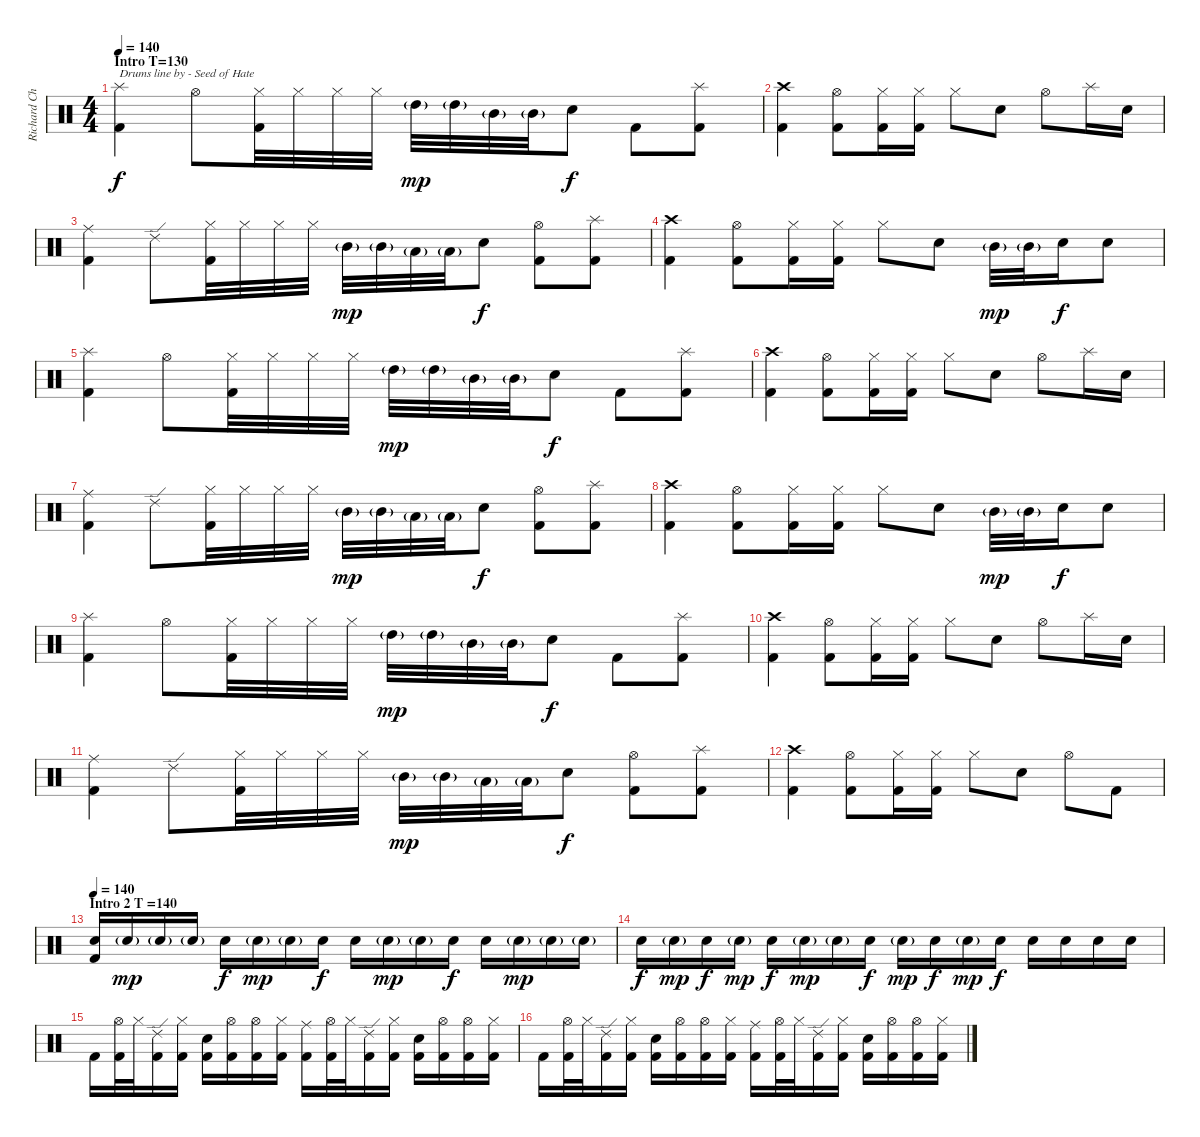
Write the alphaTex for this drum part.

\track ("Richard Christy" "Richard Ch") {instrument percussion}
\staff {score}
\articulation defaults
\ts (4 4)
\section ("" "Intro T=130")
\tempo 140
\tempo 130
\tempo 140
\clef neutral
\ks c
("Splash (hit)" "Kick (hit) 2").4{txt "Drums line by - Seed of Hate" dy f} "Hi-Hat (open)".8 ("Hi-Hat (closed)" "Kick (hit) 2").32 "Hi-Hat (closed)".32 "Hi-Hat (closed)".32 "Hi-Hat (closed)".32 "High Tom (hit)"{g}.32{dy mp} "High Tom (hit)"{g}.32 "Mid Tom (hit)"{g}.32 "Mid Tom (hit)"{g}.32 "Electric Snare (hit)".8{dy f} "Kick (hit) 2".8 ("Splash (hit)" "Kick (hit) 2").8 |
("Crash high (hit)" "Kick (hit) 2").4 ("Hi-Hat (open)" "Kick (hit) 2").8 ("Hi-Hat (closed)" "Kick (hit) 2").16 ("Hi-Hat (closed)" "Kick (hit) 2").16 "Hi-Hat (closed)".8 "Electric Snare (hit)".8 "Hi-Hat (open)".8 "Splash (hit)".16 "Electric Snare (hit)".16 |
("Ride (middle)" "Kick (hit) 2").4 "Ride (edge) 2".8 ("Hi-Hat (closed)" "Kick (hit) 2").32 "Hi-Hat (closed)".32 "Hi-Hat (closed)".32 "Hi-Hat (closed)".32 "Mid Tom (hit)"{g}.32{dy mp} "Mid Tom (hit)"{g}.32 "Low Tom (hit)"{g}.32 "Low Tom (hit)"{g}.32 "Electric Snare (hit)".8{dy f} ("Hi-Hat (open)" "Kick (hit) 2").8 ("Splash (hit)" "Kick (hit) 2").8 |
("Crash high (hit)" "Kick (hit) 2").4 ("Hi-Hat (open)" "Kick (hit) 2").8 ("Hi-Hat (closed)" "Kick (hit) 2").16 ("Hi-Hat (closed)" "Kick (hit) 2").16 "Hi-Hat (closed)".8 "Electric Snare (hit)".8 "Mid Tom (hit)"{g}.32{dy mp} "Mid Tom (hit)"{g}.32 "Electric Snare (hit)".16{dy f} "Electric Snare (hit)".8 |
("Splash (hit)" "Kick (hit) 2").4 "Hi-Hat (open)".8 ("Hi-Hat (closed)" "Kick (hit) 2").32 "Hi-Hat (closed)".32 "Hi-Hat (closed)".32 "Hi-Hat (closed)".32 "High Tom (hit)"{g}.32{dy mp} "High Tom (hit)"{g}.32 "Mid Tom (hit)"{g}.32 "Mid Tom (hit)"{g}.32 "Electric Snare (hit)".8{dy f} "Kick (hit) 2".8 ("Splash (hit)" "Kick (hit) 2").8 |
("Crash high (hit)" "Kick (hit) 2").4 ("Hi-Hat (open)" "Kick (hit) 2").8 ("Hi-Hat (closed)" "Kick (hit) 2").16 ("Hi-Hat (closed)" "Kick (hit) 2").16 "Hi-Hat (closed)".8 "Electric Snare (hit)".8 "Hi-Hat (open)".8 "Splash (hit)".16 "Electric Snare (hit)".16 |
("Ride (middle)" "Kick (hit) 2").4 "Ride (edge) 2".8 ("Hi-Hat (closed)" "Kick (hit) 2").32 "Hi-Hat (closed)".32 "Hi-Hat (closed)".32 "Hi-Hat (closed)".32 "Mid Tom (hit)"{g}.32{dy mp} "Mid Tom (hit)"{g}.32 "Low Tom (hit)"{g}.32 "Low Tom (hit)"{g}.32 "Electric Snare (hit)".8{dy f} ("Hi-Hat (open)" "Kick (hit) 2").8 ("Splash (hit)" "Kick (hit) 2").8 |
("Crash high (hit)" "Kick (hit) 2").4 ("Hi-Hat (open)" "Kick (hit) 2").8 ("Hi-Hat (closed)" "Kick (hit) 2").16 ("Hi-Hat (closed)" "Kick (hit) 2").16 "Hi-Hat (closed)".8 "Electric Snare (hit)".8 "Mid Tom (hit)"{g}.32{dy mp} "Mid Tom (hit)"{g}.32 "Electric Snare (hit)".16{dy f} "Electric Snare (hit)".8 |
("Splash (hit)" "Kick (hit) 2").4 "Hi-Hat (open)".8 ("Hi-Hat (closed)" "Kick (hit) 2").32 "Hi-Hat (closed)".32 "Hi-Hat (closed)".32 "Hi-Hat (closed)".32 "High Tom (hit)"{g}.32{dy mp} "High Tom (hit)"{g}.32 "Mid Tom (hit)"{g}.32 "Mid Tom (hit)"{g}.32 "Electric Snare (hit)".8{dy f} "Kick (hit) 2".8 ("Splash (hit)" "Kick (hit) 2").8 |
("Crash high (hit)" "Kick (hit) 2").4 ("Hi-Hat (open)" "Kick (hit) 2").8 ("Hi-Hat (closed)" "Kick (hit) 2").16 ("Hi-Hat (closed)" "Kick (hit) 2").16 "Hi-Hat (closed)".8 "Electric Snare (hit)".8 "Hi-Hat (open)".8 "Splash (hit)".16 "Electric Snare (hit)".16 |
("Ride (middle)" "Kick (hit) 2").4 "Ride (edge) 2".8 ("Hi-Hat (closed)" "Kick (hit) 2").32 "Hi-Hat (closed)".32 "Hi-Hat (closed)".32 "Hi-Hat (closed)".32 "Mid Tom (hit)"{g}.32{dy mp} "Mid Tom (hit)"{g}.32 "Low Tom (hit)"{g}.32 "Low Tom (hit)"{g}.32 "Electric Snare (hit)".8{dy f} ("Hi-Hat (open)" "Kick (hit) 2").8 ("Splash (hit)" "Kick (hit) 2").8 |
("Crash high (hit)" "Kick (hit) 2").4 ("Hi-Hat (open)" "Kick (hit) 2").8 ("Hi-Hat (closed)" "Kick (hit) 2").16 ("Hi-Hat (closed)" "Kick (hit) 2").16 "Hi-Hat (closed)".8 "Electric Snare (hit)".8 "Hi-Hat (open)".8 "Kick (hit) 2".8 |
\section ("" "Intro 2 T =140")
\tempo 140
("Electric Snare (hit)" "Kick (hit) 2").16 "Electric Snare (hit)"{g}.16{dy mp} "Electric Snare (hit)"{g}.16 "Electric Snare (hit)"{g}.16 "Electric Snare (hit)".16{dy f} "Electric Snare (hit)"{g}.16{dy mp} "Electric Snare (hit)"{g}.16 "Electric Snare (hit)".16{dy f} "Electric Snare (hit)".16 "Electric Snare (hit)"{g}.16{dy mp} "Electric Snare (hit)"{g}.16 "Electric Snare (hit)".16{dy f} "Electric Snare (hit)".16 "Electric Snare (hit)"{g}.16{dy mp} "Electric Snare (hit)"{g}.16 "Electric Snare (hit)"{g}.16 |
"Electric Snare (hit)".16{dy f} "Electric Snare (hit)"{g}.16{dy mp} "Electric Snare (hit)".16{dy f} "Electric Snare (hit)"{g}.16{dy mp} "Electric Snare (hit)".16{dy f} "Electric Snare (hit)"{g}.16{dy mp} "Electric Snare (hit)"{g}.16 "Electric Snare (hit)".16{dy f} "Electric Snare (hit)"{g}.16{dy mp} "Electric Snare (hit)".16{dy f} "Electric Snare (hit)"{g}.16{dy mp} "Electric Snare (hit)".16{dy f} "Electric Snare (hit)".16 "Electric Snare (hit)".16 "Electric Snare (hit)".16 "Electric Snare (hit)".16 |
"Kick (hit) 2".16 ("Hi-Hat (open)" "Kick (hit) 2").32 "Hi-Hat (closed)".32 ("Ride (edge) 2" "Kick (hit) 2").16 ("Hi-Hat (closed)" "Kick (hit) 2").16 ("Electric Snare (hit)" "Kick (hit) 2").16 ("Hi-Hat (open)" "Kick (hit) 2").16 ("Hi-Hat (open)" "Kick (hit) 2").16 ("Hi-Hat (closed)" "Kick (hit) 2").16 ("Ride (middle)" "Kick (hit) 2").16 ("Hi-Hat (open)" "Kick (hit) 2").32 "Hi-Hat (closed)".32 ("Ride (edge) 2" "Kick (hit) 2").16 ("Hi-Hat (closed)" "Kick (hit) 2").16 ("Electric Snare (hit)" "Kick (hit) 2").16 ("Hi-Hat (open)" "Kick (hit) 2").16 ("Hi-Hat (open)" "Kick (hit) 2").16 ("Hi-Hat (closed)" "Kick (hit) 2").16 |
"Kick (hit) 2".16 ("Hi-Hat (open)" "Kick (hit) 2").32 "Hi-Hat (closed)".32 ("Ride (edge) 2" "Kick (hit) 2").16 ("Hi-Hat (closed)" "Kick (hit) 2").16 ("Electric Snare (hit)" "Kick (hit) 2").16 ("Hi-Hat (open)" "Kick (hit) 2").16 ("Hi-Hat (open)" "Kick (hit) 2").16 ("Hi-Hat (closed)" "Kick (hit) 2").16 ("Ride (middle)" "Kick (hit) 2").16 ("Hi-Hat (open)" "Kick (hit) 2").32 "Hi-Hat (closed)".32 ("Ride (edge) 2" "Kick (hit) 2").16 ("Hi-Hat (closed)" "Kick (hit) 2").16 ("Electric Snare (hit)" "Kick (hit) 2").16 ("Hi-Hat (open)" "Kick (hit) 2").16 ("Hi-Hat (open)" "Kick (hit) 2").16 ("Hi-Hat (closed)" "Kick (hit) 2").16
